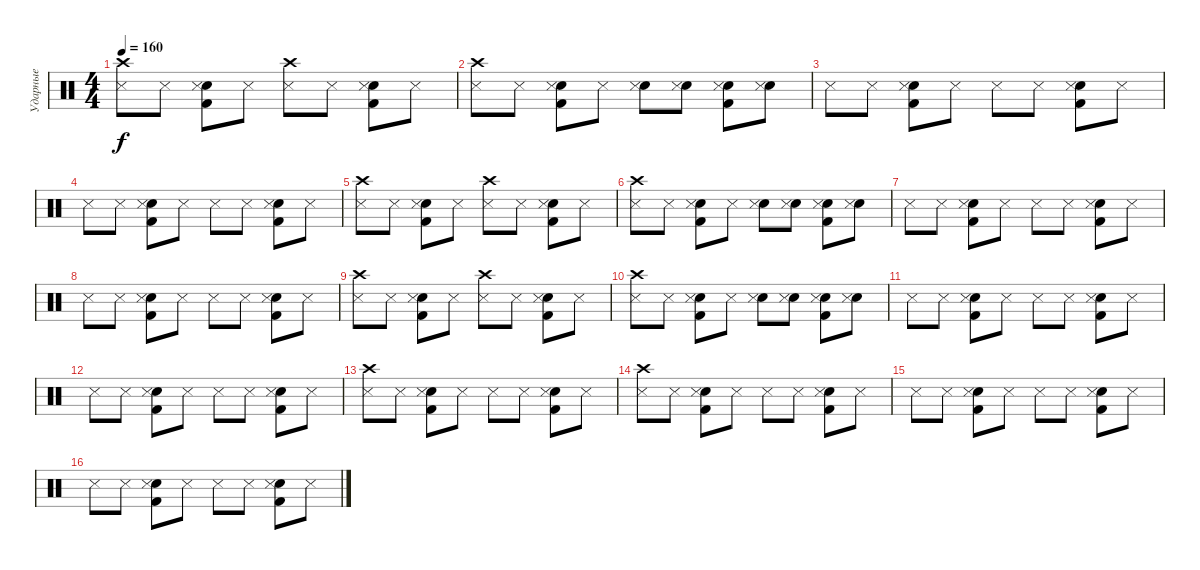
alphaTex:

\track ("Ударные" "Ударные") {instrument percussion}
\staff {score}
\articulation defaults
\ts (4 4)
\tempo 160
\clef neutral
\ks c
("Crash high (hit)" "Snare (side stick) 3").8{dy f} "Snare (side stick) 3".8 ("Kick (hit) 2" "Snare (hit) 2" "Snare (side stick) 3").8 "Snare (side stick) 3".8 ("Crash high (hit)" "Snare (side stick) 3").8 "Snare (side stick) 3".8 ("Kick (hit) 2" "Snare (hit) 2" "Snare (side stick) 3").8 "Snare (side stick) 3".8 |
("Crash high (hit)" "Snare (side stick) 3").8 "Snare (side stick) 3".8 ("Kick (hit) 2" "Snare (hit) 2" "Snare (side stick) 3").8 "Snare (side stick) 3".8 ("Snare (hit) 2" "Snare (side stick) 3").8 ("Snare (hit) 2" "Snare (side stick) 3").8 ("Kick (hit) 2" "Snare (hit) 2" "Snare (side stick) 3").8 ("Snare (hit) 2" "Snare (side stick) 3").8 |
"Snare (side stick) 3".8 "Snare (side stick) 3".8 ("Kick (hit) 2" "Snare (hit) 2" "Snare (side stick) 3").8 "Snare (side stick) 3".8 "Snare (side stick) 3".8 "Snare (side stick) 3".8 ("Kick (hit) 2" "Snare (hit) 2" "Snare (side stick) 3").8 "Snare (side stick) 3".8 |
"Snare (side stick) 3".8 "Snare (side stick) 3".8 ("Kick (hit) 2" "Snare (hit) 2" "Snare (side stick) 3").8 "Snare (side stick) 3".8 "Snare (side stick) 3".8 "Snare (side stick) 3".8 ("Kick (hit) 2" "Snare (hit) 2" "Snare (side stick) 3").8 "Snare (side stick) 3".8 |
("Crash high (hit)" "Snare (side stick) 3").8 "Snare (side stick) 3".8 ("Kick (hit) 2" "Snare (hit) 2" "Snare (side stick) 3").8 "Snare (side stick) 3".8 ("Crash high (hit)" "Snare (side stick) 3").8 "Snare (side stick) 3".8 ("Kick (hit) 2" "Snare (hit) 2" "Snare (side stick) 3").8 "Snare (side stick) 3".8 |
("Crash high (hit)" "Snare (side stick) 3").8 "Snare (side stick) 3".8 ("Kick (hit) 2" "Snare (hit) 2" "Snare (side stick) 3").8 "Snare (side stick) 3".8 ("Snare (hit) 2" "Snare (side stick) 3").8 ("Snare (hit) 2" "Snare (side stick) 3").8 ("Kick (hit) 2" "Snare (hit) 2" "Snare (side stick) 3").8 ("Snare (hit) 2" "Snare (side stick) 3").8 |
"Snare (side stick) 3".8 "Snare (side stick) 3".8 ("Kick (hit) 2" "Snare (hit) 2" "Snare (side stick) 3").8 "Snare (side stick) 3".8 "Snare (side stick) 3".8 "Snare (side stick) 3".8 ("Kick (hit) 2" "Snare (hit) 2" "Snare (side stick) 3").8 "Snare (side stick) 3".8 |
"Snare (side stick) 3".8 "Snare (side stick) 3".8 ("Kick (hit) 2" "Snare (hit) 2" "Snare (side stick) 3").8 "Snare (side stick) 3".8 "Snare (side stick) 3".8 "Snare (side stick) 3".8 ("Kick (hit) 2" "Snare (hit) 2" "Snare (side stick) 3").8 "Snare (side stick) 3".8 |
("Crash high (hit)" "Snare (side stick) 3").8 "Snare (side stick) 3".8 ("Kick (hit) 2" "Snare (hit) 2" "Snare (side stick) 3").8 "Snare (side stick) 3".8 ("Crash high (hit)" "Snare (side stick) 3").8 "Snare (side stick) 3".8 ("Kick (hit) 2" "Snare (hit) 2" "Snare (side stick) 3").8 "Snare (side stick) 3".8 |
("Crash high (hit)" "Snare (side stick) 3").8 "Snare (side stick) 3".8 ("Kick (hit) 2" "Snare (hit) 2" "Snare (side stick) 3").8 "Snare (side stick) 3".8 ("Snare (hit) 2" "Snare (side stick) 3").8 ("Snare (hit) 2" "Snare (side stick) 3").8 ("Kick (hit) 2" "Snare (hit) 2" "Snare (side stick) 3").8 ("Snare (hit) 2" "Snare (side stick) 3").8 |
"Snare (side stick) 3".8 "Snare (side stick) 3".8 ("Kick (hit) 2" "Snare (hit) 2" "Snare (side stick) 3").8 "Snare (side stick) 3".8 "Snare (side stick) 3".8 "Snare (side stick) 3".8 ("Kick (hit) 2" "Snare (hit) 2" "Snare (side stick) 3").8 "Snare (side stick) 3".8 |
"Snare (side stick) 3".8 "Snare (side stick) 3".8 ("Kick (hit) 2" "Snare (hit) 2" "Snare (side stick) 3").8 "Snare (side stick) 3".8 "Snare (side stick) 3".8 "Snare (side stick) 3".8 ("Kick (hit) 2" "Snare (hit) 2" "Snare (side stick) 3").8 "Snare (side stick) 3".8 |
("Crash high (hit)" "Snare (side stick) 3").8 "Snare (side stick) 3".8 ("Kick (hit) 2" "Snare (hit) 2" "Snare (side stick) 3").8 "Snare (side stick) 3".8 "Snare (side stick) 3".8 "Snare (side stick) 3".8 ("Kick (hit) 2" "Snare (hit) 2" "Snare (side stick) 3").8 "Snare (side stick) 3".8 |
("Crash high (hit)" "Snare (side stick) 3").8 "Snare (side stick) 3".8 ("Kick (hit) 2" "Snare (hit) 2" "Snare (side stick) 3").8 "Snare (side stick) 3".8 "Snare (side stick) 3".8 "Snare (side stick) 3".8 ("Kick (hit) 2" "Snare (hit) 2" "Snare (side stick) 3").8 "Snare (side stick) 3".8 |
"Snare (side stick) 3".8 "Snare (side stick) 3".8 ("Kick (hit) 2" "Snare (hit) 2" "Snare (side stick) 3").8 "Snare (side stick) 3".8 "Snare (side stick) 3".8 "Snare (side stick) 3".8 ("Kick (hit) 2" "Snare (hit) 2" "Snare (side stick) 3").8 "Snare (side stick) 3".8 |
"Snare (side stick) 3".8 "Snare (side stick) 3".8 ("Kick (hit) 2" "Snare (hit) 2" "Snare (side stick) 3").8 "Snare (side stick) 3".8 "Snare (side stick) 3".8 "Snare (side stick) 3".8 ("Kick (hit) 2" "Snare (hit) 2" "Snare (side stick) 3").8 "Snare (side stick) 3".8
